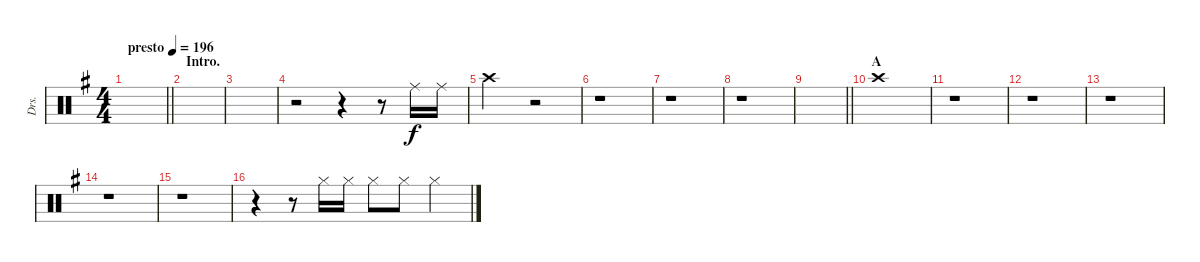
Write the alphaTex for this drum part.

\track ("Drs." "Drs.") {instrument percussion}
\staff {score}
\articulation defaults
\ts (4 4)
\tempo (196 "presto")
\clef neutral
\barLineRight lightlight
\ks g
|
\section ("" "Intro.")
|
|
r.2 r.4 r.8 "Ride (middle)".16 "Ride (middle)".16 |
"Crash high (hit)".2 r.2 |
r.1 |
r.1 |
r.1 |
\barLineRight lightlight
|
\section ("" "A")
"Crash high (hit)".1 |
r.1 |
r.1 |
r.1 |
r.1 |
r.1 |
r.4 r.8 "Hi-Hat (closed)".16 "Hi-Hat (closed)".16 "Hi-Hat (closed)".8 "Hi-Hat (closed)".8 "Hi-Hat (closed)".4
